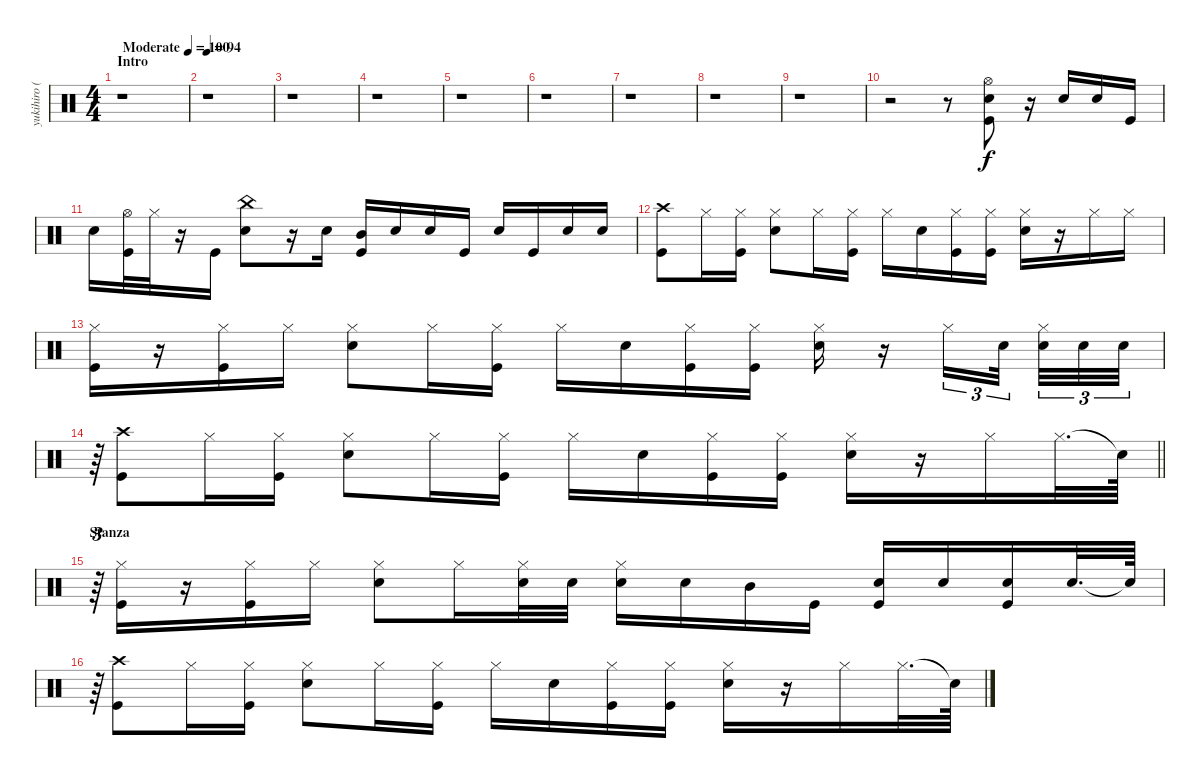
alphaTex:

\track ("yukihiro (Drums)" "yukihiro (") {instrument percussion}
\staff {score}
\articulation defaults
\ts (4 4)
\section ("" "Intro")
\tempo (100 "Moderate")
\clef neutral
\ks c
r.1{dy f} |
\tempo 94
r.1 |
r.1 |
r.1 |
r.1 |
r.1 |
r.1 |
r.1 |
r.1 |
r.2 r.8 ("Hi-Hat (open)" "Kick (hit)" "Electric Snare (hit)").8 r.16 "Electric Snare (hit)".16 "Electric Snare (hit)".16 "Kick (hit)".16 |
"Electric Snare (hit)".16 ("Hi-Hat (open)" "Kick (hit)").32 "Hi-Hat (closed)".32 r.16 "Kick (hit)".16 ("China (hit)" "Electric Snare (hit)").8 r.16 "Electric Snare (hit)".16 ("Kick (hit)" "Mid Tom (hit)").16 "Electric Snare (hit)".16 "Electric Snare (hit)".16 "Kick (hit)".16 "Electric Snare (hit)".16 "Kick (hit)".16 "Electric Snare (hit)".16 "Electric Snare (hit)".16 |
("Crash high (hit)" "Kick (hit)").8 "Hi-Hat (closed)".16 ("Kick (hit)" "Hi-Hat (closed)").16 ("Electric Snare (hit)" "Hi-Hat (closed)").8 "Hi-Hat (closed)".16 ("Kick (hit)" "Hi-Hat (closed)").16 "Hi-Hat (closed)".16 "Electric Snare (hit)".16 ("Kick (hit)" "Hi-Hat (closed)").16 ("Kick (hit)" "Hi-Hat (closed)").16 ("Electric Snare (hit)" "Hi-Hat (closed)").16 r.16 "Hi-Hat (closed)".16 "Hi-Hat (closed)".16 |
("Kick (hit)" "Hi-Hat (closed)").16 r.16 ("Kick (hit)" "Hi-Hat (closed)").16 "Hi-Hat (closed)".16 ("Electric Snare (hit)" "Hi-Hat (closed)").8 "Hi-Hat (closed)".16 ("Kick (hit)" "Hi-Hat (closed)").16 "Hi-Hat (closed)".16 "Electric Snare (hit)".16 ("Kick (hit)" "Hi-Hat (closed)").16 ("Kick (hit)" "Hi-Hat (closed)").16 ("Electric Snare (hit)" "Hi-Hat (closed)").16 r.16 "Hi-Hat (closed)".16{tu (3 2)} "Electric Snare (hit)".32{tu (3 2) beam splitsecondary} ("Electric Snare (hit)" "Hi-Hat (closed)").32{tu (3 2)} "Electric Snare (hit)".32{tu (3 2)} "Electric Snare (hit)".32{tu (3 2)} |
\barLineRight lightlight
r.64{tu (3 2)} ("Crash high (hit)" "Kick (hit)").8 "Hi-Hat (closed)".16 ("Kick (hit)" "Hi-Hat (closed)").16 ("Electric Snare (hit)" "Hi-Hat (closed)").8 "Hi-Hat (closed)".16 ("Kick (hit)" "Hi-Hat (closed)").16 "Hi-Hat (closed)".16 "Electric Snare (hit)".16 ("Kick (hit)" "Hi-Hat (closed)").16 ("Kick (hit)" "Hi-Hat (closed)").16 ("Electric Snare (hit)" "Hi-Hat (closed)").16 r.16 "Hi-Hat (closed)".16 "Hi-Hat (closed)".32{d} "Snare (hit)"{t}.64 |
\section ("" "Stanza")
r.64{tu (3 2)} ("Kick (hit)" "Hi-Hat (closed)").16 r.16 ("Kick (hit)" "Hi-Hat (closed)").16 "Hi-Hat (closed)".16 ("Electric Snare (hit)" "Hi-Hat (closed)").8 "Hi-Hat (closed)".16 ("Electric Snare (hit)" "Hi-Hat (closed)").32 "Electric Snare (hit)".32 ("Electric Snare (hit)" "Hi-Hat (closed)").16 "Electric Snare (hit)".16 "Mid Tom (hit)".16 "Kick (hit)".16 ("Kick (hit)" "Electric Snare (hit)").16 "Electric Snare (hit)".16 ("Kick (hit)" "Electric Snare (hit)").16 "Electric Snare (hit)".32{d} "Snare (hit)"{t}.64 |
r.64{tu (3 2)} ("Crash high (hit)" "Kick (hit)").8 "Hi-Hat (closed)".16 ("Kick (hit)" "Hi-Hat (closed)").16 ("Electric Snare (hit)" "Hi-Hat (closed)").8 "Hi-Hat (closed)".16 ("Kick (hit)" "Hi-Hat (closed)").16 "Hi-Hat (closed)".16 "Electric Snare (hit)".16 ("Kick (hit)" "Hi-Hat (closed)").16 ("Kick (hit)" "Hi-Hat (closed)").16 ("Electric Snare (hit)" "Hi-Hat (closed)").16 r.16 "Hi-Hat (closed)".16 "Hi-Hat (closed)".32{d} "Snare (hit)"{t}.64
